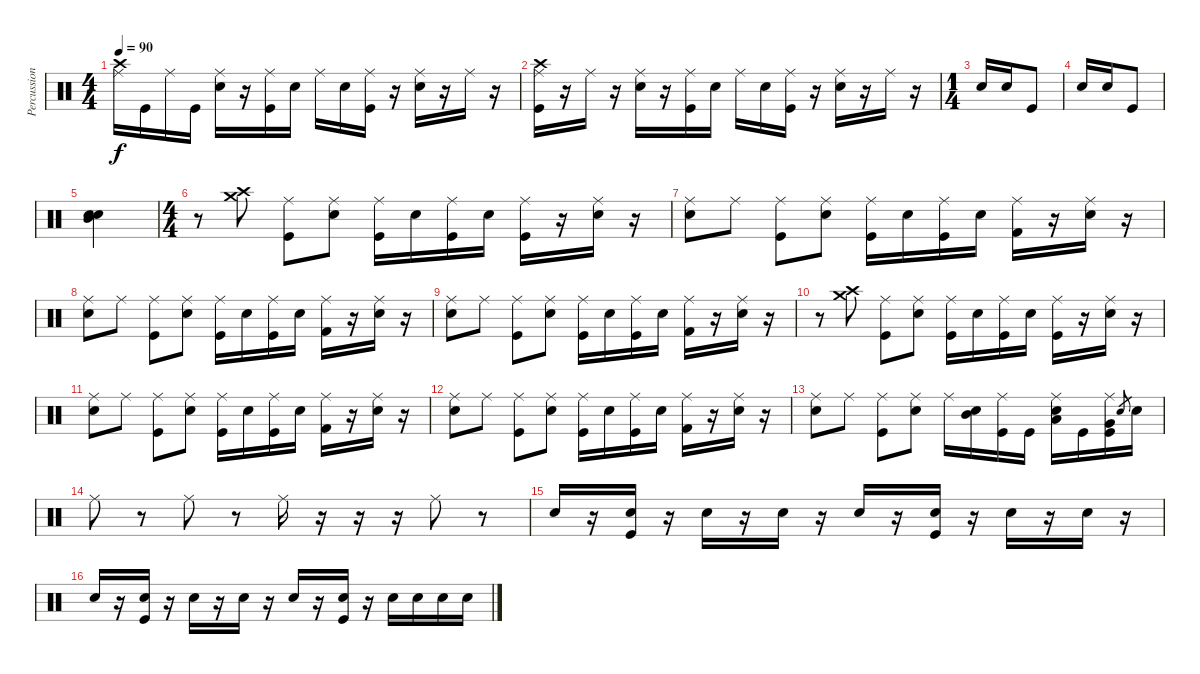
\track ("Percussions" "Percussion") {instrument percussion}
\staff {score}
\articulation defaults
\ts (4 4)
\tempo 90
\clef neutral
\ks c
("Ride (middle)" "Crash high (hit)").16{dy f} "Kick (hit)".16 "Ride (middle)".16 "Kick (hit)".16 ("Ride (middle)" "Electric Snare (hit)").16 r.16 ("Ride (middle)" "Kick (hit)").16 "Electric Snare (hit)".16 "Ride (middle)".16 "Electric Snare (hit)".16 ("Ride (middle)" "Kick (hit)").16 r.16 ("Ride (middle)" "Electric Snare (hit)").16 r.16 "Ride (middle)".16 r.16 |
("Ride (middle)" "Crash high (hit)" "Kick (hit)").16 r.16 "Ride (middle)".16 r.16 ("Ride (middle)" "Electric Snare (hit)").16 r.16 ("Ride (middle)" "Kick (hit)").16 "Electric Snare (hit)".16 "Ride (middle)".16 "Electric Snare (hit)".16 ("Ride (middle)" "Kick (hit)").16 r.16 ("Ride (middle)" "Electric Snare (hit)").16 r.16 "Ride (middle)".16 r.16 |
\ts (1 4)
"Electric Snare (hit)".16 "Electric Snare (hit)".16 "Kick (hit)".8 |
"Electric Snare (hit)".16 "Electric Snare (hit)".16 "Kick (hit)".8 |
("Mid Tom (hit)" "Electric Snare (hit)" "Electric Snare (hit)").4 |
\ts (4 4)
r.8{volume 14} ("Crash medium (hit)" "Crash high (hit)").8 ("Ride (middle)" "Kick (hit)").8 ("Ride (middle)" "Electric Snare (hit)").8 ("Ride (middle)" "Kick (hit)").16 "Electric Snare (hit)".16 ("Ride (middle)" "Kick (hit)").16 "Electric Snare (hit)".16 ("Ride (middle)" "Kick (hit)").16 r.16 ("Ride (middle)" "Electric Snare (hit)").16 r.16 |
("Ride (middle)" "Electric Snare (hit)"{tr (40 16)}).8 "Ride (middle)".8 ("Ride (middle)" "Kick (hit)").8 ("Ride (middle)" "Electric Snare (hit)").8 ("Ride (middle)" "Kick (hit)").16 "Electric Snare (hit)".16 ("Ride (middle)" "Kick (hit)").16 "Electric Snare (hit)".16 ("Ride (middle)" "Kick (hit) 2").16 r.16 ("Ride (middle)" "Electric Snare (hit)").16 r.16 |
("Ride (middle)" "Electric Snare (hit)"{tr (40 16)}).8 "Ride (middle)".8 ("Ride (middle)" "Kick (hit)").8 ("Ride (middle)" "Electric Snare (hit)").8 ("Ride (middle)" "Kick (hit)").16 "Electric Snare (hit)".16 ("Ride (middle)" "Kick (hit)").16 "Electric Snare (hit)".16 ("Ride (middle)" "Kick (hit) 2").16 r.16 ("Ride (middle)" "Electric Snare (hit)").16 r.16 |
("Ride (middle)" "Electric Snare (hit)"{tr (40 16)}).8 "Ride (middle)".8 ("Ride (middle)" "Kick (hit)").8 ("Ride (middle)" "Electric Snare (hit)").8 ("Ride (middle)" "Kick (hit)").16 "Electric Snare (hit)".16 ("Ride (middle)" "Kick (hit)").16 "Electric Snare (hit)".16 ("Ride (middle)" "Kick (hit) 2").16 r.16 ("Ride (middle)" "Electric Snare (hit)").16 r.16 |
r.8{volume 14} ("Crash medium (hit)" "Crash high (hit)").8 ("Ride (middle)" "Kick (hit)").8 ("Ride (middle)" "Electric Snare (hit)").8 ("Ride (middle)" "Kick (hit)").16 "Electric Snare (hit)".16 ("Ride (middle)" "Kick (hit)").16 "Electric Snare (hit)".16 ("Ride (middle)" "Kick (hit)").16 r.16 ("Ride (middle)" "Electric Snare (hit)").16 r.16 |
("Ride (middle)" "Electric Snare (hit)"{tr (40 16)}).8 "Ride (middle)".8 ("Ride (middle)" "Kick (hit)").8 ("Ride (middle)" "Electric Snare (hit)").8 ("Ride (middle)" "Kick (hit)").16 "Electric Snare (hit)".16 ("Ride (middle)" "Kick (hit)").16 "Electric Snare (hit)".16 ("Ride (middle)" "Kick (hit) 2").16 r.16 ("Ride (middle)" "Electric Snare (hit)").16 r.16 |
("Ride (middle)" "Electric Snare (hit)"{tr (40 16)}).8 "Ride (middle)".8 ("Ride (middle)" "Kick (hit)").8 ("Ride (middle)" "Electric Snare (hit)").8 ("Ride (middle)" "Kick (hit)").16 "Electric Snare (hit)".16 ("Ride (middle)" "Kick (hit)").16 "Electric Snare (hit)".16 ("Ride (middle)" "Kick (hit) 2").16 r.16 ("Ride (middle)" "Electric Snare (hit)").16 r.16 |
("Ride (middle)" "Electric Snare (hit)"{tr (40 16)}).8 "Ride (middle)".8 ("Ride (middle)" "Kick (hit)").8 ("Ride (middle)" "Electric Snare (hit)").8 "Ride (middle)".16 ("Mid Tom (hit)" "Electric Snare (hit)").16 ("Ride (middle)" "Kick (hit)").16 "Kick (hit)".16 ("Ride (middle)" "Low Tom (hit)" "Electric Snare (hit)").16 "Kick (hit)".16 ("Ride (middle)" "Very Low Tom (hit)" "Kick (hit)").16 "Electric Snare (hit)".8{gr} "Electric Snare (hit)".16 |
"Ride (middle)".8 r.8 "Ride (middle)".8 r.8 "Ride (middle)".16 r.16 r.16 r.16 "Ride (middle)".8 r.8 |
"Electric Snare (hit)".16 r.16 ("Electric Snare (hit)" "Kick (hit)").16 r.16 "Electric Snare (hit)".16 r.16 "Electric Snare (hit)".16 r.16 "Electric Snare (hit)".16 r.16 ("Electric Snare (hit)" "Kick (hit)").16 r.16 "Electric Snare (hit)".16 r.16 "Electric Snare (hit)".16 r.16 |
"Electric Snare (hit)".16 r.16 ("Electric Snare (hit)" "Kick (hit)").16 r.16 "Electric Snare (hit)".16 r.16 "Electric Snare (hit)".16 r.16 "Electric Snare (hit)".16 r.16 ("Electric Snare (hit)" "Kick (hit)").16 r.16 "Electric Snare (hit)".16 "Electric Snare (hit)".16 "Electric Snare (hit)".16 "Electric Snare (hit)".16
